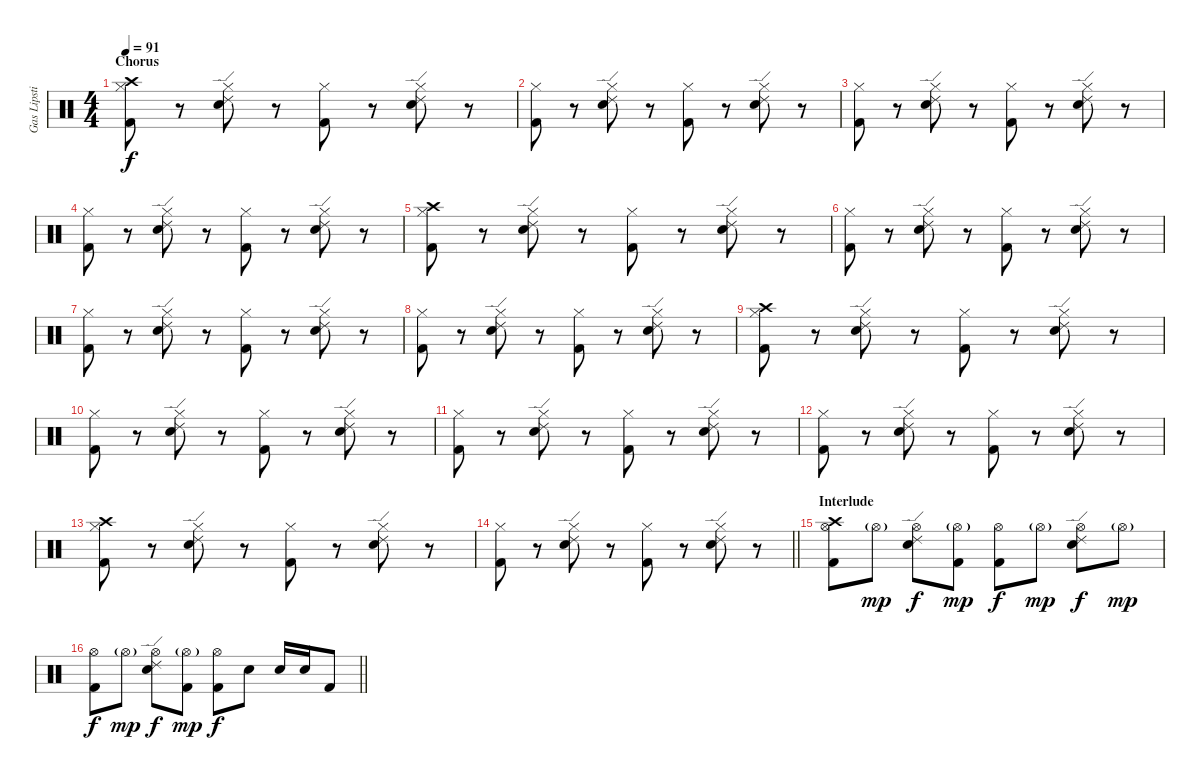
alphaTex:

\track ("Gas Lipstick (Drums)" "Gas Lipsti") {instrument percussion}
\staff {score}
\articulation defaults
\ts (4 4)
\section ("" "Chorus")
\tempo 91
\clef neutral
\ks c
("Crash high (hit)" "Hi-Hat (closed)" "Kick (hit) 2").8{dy f} r.8 ("Ride (edge) 2" "Hi-Hat (closed)" "Snare (hit) 2").8 r.8 ("Hi-Hat (closed)" "Kick (hit) 2").8 r.8 ("Ride (edge) 2" "Hi-Hat (closed)" "Snare (hit) 2").8 r.8 |
("Hi-Hat (closed)" "Kick (hit) 2").8 r.8 ("Ride (edge) 2" "Hi-Hat (closed)" "Snare (hit) 2").8 r.8 ("Hi-Hat (closed)" "Kick (hit) 2").8 r.8 ("Ride (edge) 2" "Hi-Hat (closed)" "Snare (hit) 2").8 r.8 |
("Hi-Hat (closed)" "Kick (hit) 2").8 r.8 ("Ride (edge) 2" "Hi-Hat (closed)" "Snare (hit) 2").8 r.8 ("Hi-Hat (closed)" "Kick (hit) 2").8 r.8 ("Ride (edge) 2" "Hi-Hat (closed)" "Snare (hit) 2").8 r.8 |
("Hi-Hat (closed)" "Kick (hit) 2").8 r.8 ("Ride (edge) 2" "Hi-Hat (closed)" "Snare (hit) 2").8 r.8 ("Hi-Hat (closed)" "Kick (hit) 2").8 r.8 ("Ride (edge) 2" "Hi-Hat (closed)" "Snare (hit) 2").8 r.8 |
("Crash high (hit)" "Hi-Hat (closed)" "Kick (hit) 2").8 r.8 ("Ride (edge) 2" "Hi-Hat (closed)" "Snare (hit) 2").8 r.8 ("Hi-Hat (closed)" "Kick (hit) 2").8 r.8 ("Ride (edge) 2" "Hi-Hat (closed)" "Snare (hit) 2").8 r.8 |
("Hi-Hat (closed)" "Kick (hit) 2").8 r.8 ("Ride (edge) 2" "Hi-Hat (closed)" "Snare (hit) 2").8 r.8 ("Hi-Hat (closed)" "Kick (hit) 2").8 r.8 ("Ride (edge) 2" "Hi-Hat (closed)" "Snare (hit) 2").8 r.8 |
("Hi-Hat (closed)" "Kick (hit) 2").8 r.8 ("Ride (edge) 2" "Hi-Hat (closed)" "Snare (hit) 2").8 r.8 ("Hi-Hat (closed)" "Kick (hit) 2").8 r.8 ("Ride (edge) 2" "Hi-Hat (closed)" "Snare (hit) 2").8 r.8 |
("Hi-Hat (closed)" "Kick (hit) 2").8 r.8 ("Ride (edge) 2" "Hi-Hat (closed)" "Snare (hit) 2").8 r.8 ("Hi-Hat (closed)" "Kick (hit) 2").8 r.8 ("Ride (edge) 2" "Hi-Hat (closed)" "Snare (hit) 2").8 r.8 |
("Crash high (hit)" "Hi-Hat (closed)" "Kick (hit) 2").8 r.8 ("Ride (edge) 2" "Hi-Hat (closed)" "Snare (hit) 2").8 r.8 ("Hi-Hat (closed)" "Kick (hit) 2").8 r.8 ("Ride (edge) 2" "Hi-Hat (closed)" "Snare (hit) 2").8 r.8 |
("Hi-Hat (closed)" "Kick (hit) 2").8 r.8 ("Ride (edge) 2" "Hi-Hat (closed)" "Snare (hit) 2").8 r.8 ("Hi-Hat (closed)" "Kick (hit) 2").8 r.8 ("Ride (edge) 2" "Hi-Hat (closed)" "Snare (hit) 2").8 r.8 |
("Hi-Hat (closed)" "Kick (hit) 2").8 r.8 ("Ride (edge) 2" "Hi-Hat (closed)" "Snare (hit) 2").8 r.8 ("Hi-Hat (closed)" "Kick (hit) 2").8 r.8 ("Ride (edge) 2" "Hi-Hat (closed)" "Snare (hit) 2").8 r.8 |
("Hi-Hat (closed)" "Kick (hit) 2").8 r.8 ("Ride (edge) 2" "Hi-Hat (closed)" "Snare (hit) 2").8 r.8 ("Hi-Hat (closed)" "Kick (hit) 2").8 r.8 ("Ride (edge) 2" "Hi-Hat (closed)" "Snare (hit) 2").8 r.8 |
("Crash high (hit)" "Hi-Hat (closed)" "Kick (hit) 2").8 r.8 ("Ride (edge) 2" "Hi-Hat (closed)" "Snare (hit) 2").8 r.8 ("Hi-Hat (closed)" "Kick (hit) 2").8 r.8 ("Ride (edge) 2" "Hi-Hat (closed)" "Snare (hit) 2").8 r.8 |
\barLineRight lightlight
("Hi-Hat (closed)" "Kick (hit) 2").8 r.8 ("Ride (edge) 2" "Hi-Hat (closed)" "Snare (hit) 2").8 r.8 ("Hi-Hat (closed)" "Kick (hit) 2").8 r.8 ("Ride (edge) 2" "Hi-Hat (closed)" "Snare (hit) 2").8 r.8 |
\section ("" "Interlude")
("Crash high (hit)" "Hi-Hat (open)" "Kick (hit) 2").8 "Hi-Hat (open)"{g}.8{dy mp} ("Ride (edge) 2" "Hi-Hat (open)" "Snare (hit) 2").8{dy f} ("Hi-Hat (open)"{g} "Kick (hit) 2").8{dy mp} ("Hi-Hat (open)" "Kick (hit) 2").8{dy f} "Hi-Hat (open)"{g}.8{dy mp} ("Ride (edge) 2" "Hi-Hat (open)" "Snare (hit) 2").8{dy f} "Hi-Hat (open)"{g}.8{dy mp} |
\barLineRight lightlight
("Hi-Hat (open)" "Kick (hit) 2").8{dy f} "Hi-Hat (open)"{g}.8{dy mp} ("Ride (edge) 2" "Hi-Hat (open)" "Snare (hit) 2").8{dy f} ("Hi-Hat (open)"{g} "Kick (hit) 2").8{dy mp} ("Hi-Hat (open)" "Kick (hit) 2").8{dy f} "Snare (hit) 2".8 "Snare (hit) 2".16 "Snare (hit) 2".16 "Kick (hit) 2".8
